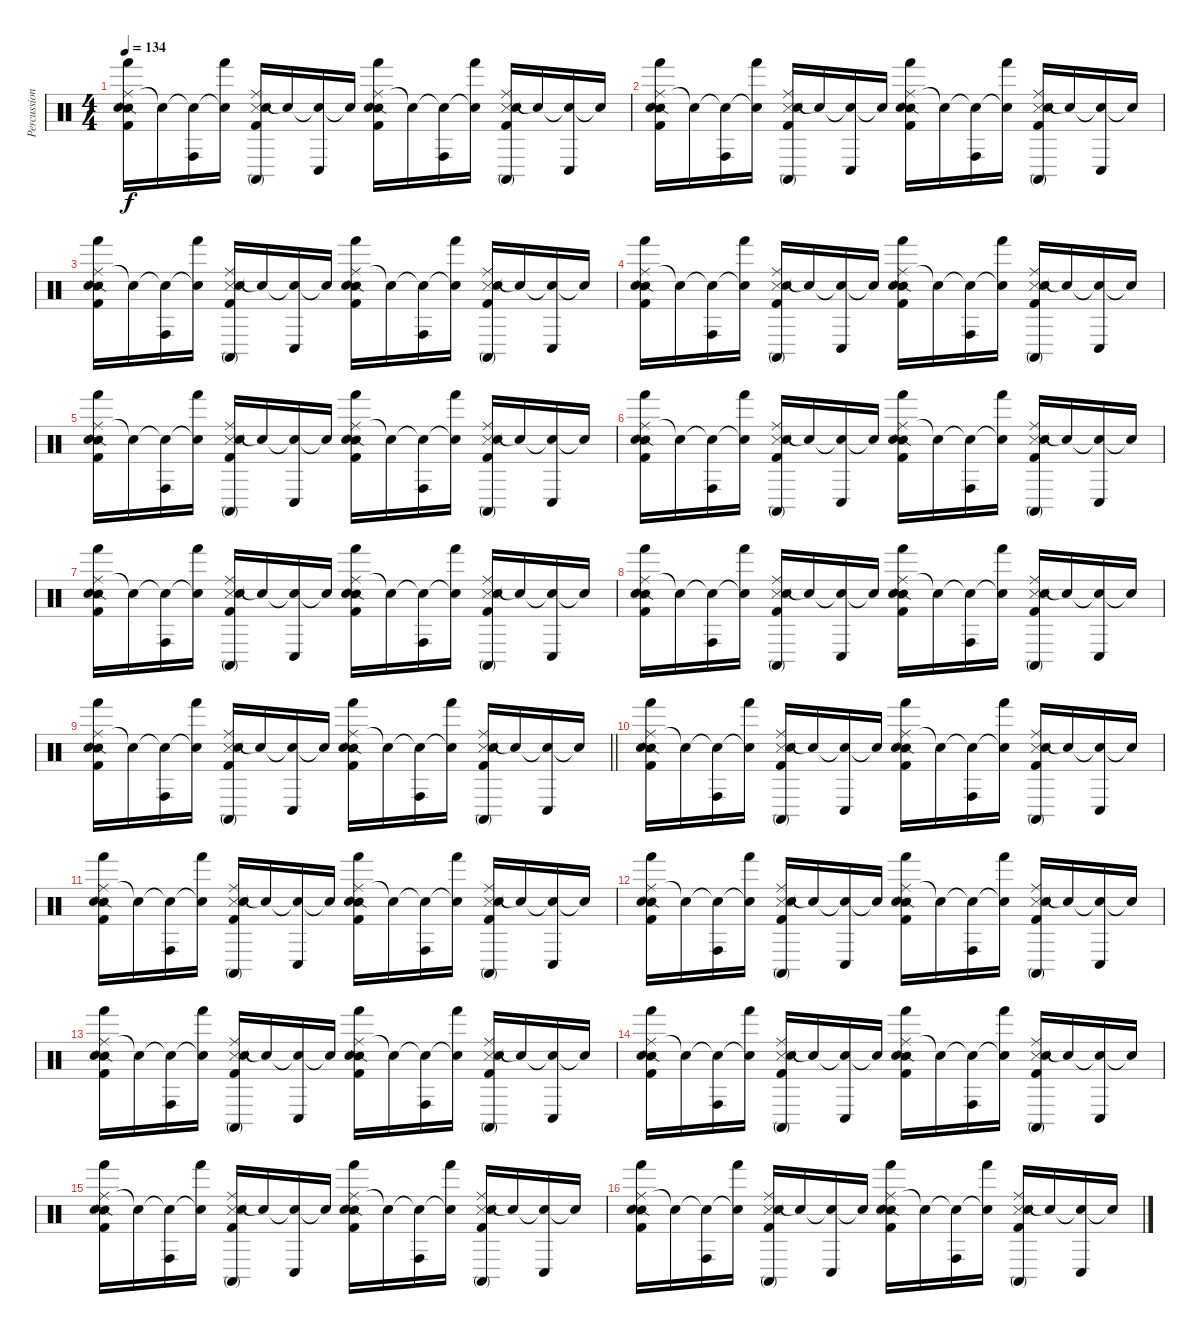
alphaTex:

\track ("Percussion" "Percussion") {instrument percussion}
\staff {score}
\articulation defaults
\ts (4 4)
\tempo 134
\clef neutral
\ks c
("Ride (middle)" "Hand (hit)" "Snare (side stick) 2" "Electric Snare (hit)" "Kick (hit) 2").16{dy f} "Snare (hit)"{t}.16 ("Snare (hit)"{t} "Conga high (hit)").16 ("Snare (hit)"{t} "Hand (hit)").16 ("Ride (middle)" "Conga high (mute)" "Metronome (hit)" "Electric Snare (hit)" "Kick (hit) 2").16 "Snare (hit)"{t}.16 ("Snare (hit)"{t} "Conga low (hit)").16 "Snare (hit)"{t}.16 ("Ride (middle)" "Hand (hit)" "Snare (side stick) 2" "Electric Snare (hit)" "Kick (hit) 2").16 "Snare (hit)"{t}.16 ("Snare (hit)"{t} "Conga high (hit)").16 ("Snare (hit)"{t} "Hand (hit)").16 ("Ride (middle)" "Conga high (mute)" "Metronome (hit)" "Electric Snare (hit)" "Kick (hit) 2").16 "Snare (hit)"{t}.16 ("Snare (hit)"{t} "Conga low (hit)").16 "Snare (hit)"{t}.16 |
("Ride (middle)" "Hand (hit)" "Snare (side stick) 2" "Electric Snare (hit)" "Kick (hit) 2").16 "Snare (hit)"{t}.16 ("Snare (hit)"{t} "Conga high (hit)").16 ("Snare (hit)"{t} "Hand (hit)").16 ("Ride (middle)" "Conga high (mute)" "Metronome (hit)" "Electric Snare (hit)" "Kick (hit) 2").16 "Snare (hit)"{t}.16 ("Snare (hit)"{t} "Conga low (hit)").16 "Snare (hit)"{t}.16 ("Ride (middle)" "Hand (hit)" "Snare (side stick) 2" "Electric Snare (hit)" "Kick (hit) 2").16 "Snare (hit)"{t}.16 ("Snare (hit)"{t} "Conga high (hit)").16 ("Snare (hit)"{t} "Hand (hit)").16 ("Ride (middle)" "Conga high (mute)" "Metronome (hit)" "Electric Snare (hit)" "Kick (hit) 2").16 "Snare (hit)"{t}.16 ("Snare (hit)"{t} "Conga low (hit)").16 "Snare (hit)"{t}.16 |
("Ride (middle)" "Hand (hit)" "Snare (side stick) 2" "Electric Snare (hit)" "Kick (hit) 2").16 "Snare (hit)"{t}.16 ("Snare (hit)"{t} "Conga high (hit)").16 ("Snare (hit)"{t} "Hand (hit)").16 ("Ride (middle)" "Conga high (mute)" "Metronome (hit)" "Electric Snare (hit)" "Kick (hit) 2").16 "Snare (hit)"{t}.16 ("Snare (hit)"{t} "Conga low (hit)").16 "Snare (hit)"{t}.16 ("Ride (middle)" "Hand (hit)" "Snare (side stick) 2" "Electric Snare (hit)" "Kick (hit) 2").16 "Snare (hit)"{t}.16 ("Snare (hit)"{t} "Conga high (hit)").16 ("Snare (hit)"{t} "Hand (hit)").16 ("Ride (middle)" "Conga high (mute)" "Metronome (hit)" "Electric Snare (hit)" "Kick (hit) 2").16 "Snare (hit)"{t}.16 ("Snare (hit)"{t} "Conga low (hit)").16 "Snare (hit)"{t}.16 |
("Ride (middle)" "Hand (hit)" "Snare (side stick) 2" "Electric Snare (hit)" "Kick (hit) 2").16 "Snare (hit)"{t}.16 ("Snare (hit)"{t} "Conga high (hit)").16 ("Snare (hit)"{t} "Hand (hit)").16 ("Ride (middle)" "Conga high (mute)" "Metronome (hit)" "Electric Snare (hit)" "Kick (hit) 2").16 "Snare (hit)"{t}.16 ("Snare (hit)"{t} "Conga low (hit)").16 "Snare (hit)"{t}.16 ("Ride (middle)" "Hand (hit)" "Snare (side stick) 2" "Electric Snare (hit)" "Kick (hit) 2").16 "Snare (hit)"{t}.16 ("Snare (hit)"{t} "Conga high (hit)").16 ("Snare (hit)"{t} "Hand (hit)").16 ("Ride (middle)" "Conga high (mute)" "Metronome (hit)" "Electric Snare (hit)" "Kick (hit) 2").16 "Snare (hit)"{t}.16 ("Snare (hit)"{t} "Conga low (hit)").16 "Snare (hit)"{t}.16 |
("Ride (middle)" "Hand (hit)" "Snare (side stick) 2" "Electric Snare (hit)" "Kick (hit) 2").16 "Snare (hit)"{t}.16 ("Snare (hit)"{t} "Conga high (hit)").16 ("Snare (hit)"{t} "Hand (hit)").16 ("Ride (middle)" "Conga high (mute)" "Metronome (hit)" "Electric Snare (hit)" "Kick (hit) 2").16 "Snare (hit)"{t}.16 ("Snare (hit)"{t} "Conga low (hit)").16 "Snare (hit)"{t}.16 ("Ride (middle)" "Hand (hit)" "Snare (side stick) 2" "Electric Snare (hit)" "Kick (hit) 2").16 "Snare (hit)"{t}.16 ("Snare (hit)"{t} "Conga high (hit)").16 ("Snare (hit)"{t} "Hand (hit)").16 ("Ride (middle)" "Conga high (mute)" "Metronome (hit)" "Electric Snare (hit)" "Kick (hit) 2").16 "Snare (hit)"{t}.16 ("Snare (hit)"{t} "Conga low (hit)").16 "Snare (hit)"{t}.16 |
("Ride (middle)" "Hand (hit)" "Snare (side stick) 2" "Electric Snare (hit)" "Kick (hit) 2").16 "Snare (hit)"{t}.16 ("Snare (hit)"{t} "Conga high (hit)").16 ("Snare (hit)"{t} "Hand (hit)").16 ("Ride (middle)" "Conga high (mute)" "Metronome (hit)" "Electric Snare (hit)" "Kick (hit) 2").16 "Snare (hit)"{t}.16 ("Snare (hit)"{t} "Conga low (hit)").16 "Snare (hit)"{t}.16 ("Ride (middle)" "Hand (hit)" "Snare (side stick) 2" "Electric Snare (hit)" "Kick (hit) 2").16 "Snare (hit)"{t}.16 ("Snare (hit)"{t} "Conga high (hit)").16 ("Snare (hit)"{t} "Hand (hit)").16 ("Ride (middle)" "Conga high (mute)" "Metronome (hit)" "Electric Snare (hit)" "Kick (hit) 2").16 "Snare (hit)"{t}.16 ("Snare (hit)"{t} "Conga low (hit)").16 "Snare (hit)"{t}.16 |
("Ride (middle)" "Hand (hit)" "Snare (side stick) 2" "Electric Snare (hit)" "Kick (hit) 2").16 "Snare (hit)"{t}.16 ("Snare (hit)"{t} "Conga high (hit)").16 ("Snare (hit)"{t} "Hand (hit)").16 ("Ride (middle)" "Conga high (mute)" "Metronome (hit)" "Electric Snare (hit)" "Kick (hit) 2").16 "Snare (hit)"{t}.16 ("Snare (hit)"{t} "Conga low (hit)").16 "Snare (hit)"{t}.16 ("Ride (middle)" "Hand (hit)" "Snare (side stick) 2" "Electric Snare (hit)" "Kick (hit) 2").16 "Snare (hit)"{t}.16 ("Snare (hit)"{t} "Conga high (hit)").16 ("Snare (hit)"{t} "Hand (hit)").16 ("Ride (middle)" "Conga high (mute)" "Metronome (hit)" "Electric Snare (hit)" "Kick (hit) 2").16 "Snare (hit)"{t}.16 ("Snare (hit)"{t} "Conga low (hit)").16 "Snare (hit)"{t}.16 |
("Ride (middle)" "Hand (hit)" "Snare (side stick) 2" "Electric Snare (hit)" "Kick (hit) 2").16 "Snare (hit)"{t}.16 ("Snare (hit)"{t} "Conga high (hit)").16 ("Snare (hit)"{t} "Hand (hit)").16 ("Ride (middle)" "Conga high (mute)" "Metronome (hit)" "Electric Snare (hit)" "Kick (hit) 2").16 "Snare (hit)"{t}.16 ("Snare (hit)"{t} "Conga low (hit)").16 "Snare (hit)"{t}.16 ("Ride (middle)" "Hand (hit)" "Snare (side stick) 2" "Electric Snare (hit)" "Kick (hit) 2").16 "Snare (hit)"{t}.16 ("Snare (hit)"{t} "Conga high (hit)").16 ("Snare (hit)"{t} "Hand (hit)").16 ("Ride (middle)" "Conga high (mute)" "Metronome (hit)" "Electric Snare (hit)" "Kick (hit) 2").16 "Snare (hit)"{t}.16 ("Snare (hit)"{t} "Conga low (hit)").16 "Snare (hit)"{t}.16 |
\barLineRight lightlight
("Ride (middle)" "Hand (hit)" "Snare (side stick) 2" "Electric Snare (hit)" "Kick (hit) 2").16 "Snare (hit)"{t}.16 ("Snare (hit)"{t} "Conga high (hit)").16 ("Snare (hit)"{t} "Hand (hit)").16 ("Ride (middle)" "Conga high (mute)" "Metronome (hit)" "Electric Snare (hit)" "Kick (hit) 2").16 "Snare (hit)"{t}.16 ("Snare (hit)"{t} "Conga low (hit)").16 "Snare (hit)"{t}.16 ("Ride (middle)" "Hand (hit)" "Snare (side stick) 2" "Electric Snare (hit)" "Kick (hit) 2").16 "Snare (hit)"{t}.16 ("Snare (hit)"{t} "Conga high (hit)").16 ("Snare (hit)"{t} "Hand (hit)").16 ("Ride (middle)" "Conga high (mute)" "Metronome (hit)" "Electric Snare (hit)" "Kick (hit) 2").16 "Snare (hit)"{t}.16 ("Snare (hit)"{t} "Conga low (hit)").16 "Snare (hit)"{t}.16 |
("Ride (middle)" "Hand (hit)" "Snare (side stick) 2" "Electric Snare (hit)" "Kick (hit) 2").16 "Snare (hit)"{t}.16 ("Snare (hit)"{t} "Conga high (hit)").16 ("Snare (hit)"{t} "Hand (hit)").16 ("Ride (middle)" "Conga high (mute)" "Metronome (hit)" "Electric Snare (hit)" "Kick (hit) 2").16 "Snare (hit)"{t}.16 ("Snare (hit)"{t} "Conga low (hit)").16 "Snare (hit)"{t}.16 ("Ride (middle)" "Hand (hit)" "Snare (side stick) 2" "Electric Snare (hit)" "Kick (hit) 2").16 "Snare (hit)"{t}.16 ("Snare (hit)"{t} "Conga high (hit)").16 ("Snare (hit)"{t} "Hand (hit)").16 ("Ride (middle)" "Conga high (mute)" "Metronome (hit)" "Electric Snare (hit)" "Kick (hit) 2").16 "Snare (hit)"{t}.16 ("Snare (hit)"{t} "Conga low (hit)").16 "Snare (hit)"{t}.16 |
("Ride (middle)" "Hand (hit)" "Snare (side stick) 2" "Electric Snare (hit)" "Kick (hit) 2").16 "Snare (hit)"{t}.16 ("Snare (hit)"{t} "Conga high (hit)").16 ("Snare (hit)"{t} "Hand (hit)").16 ("Ride (middle)" "Conga high (mute)" "Metronome (hit)" "Electric Snare (hit)" "Kick (hit) 2").16 "Snare (hit)"{t}.16 ("Snare (hit)"{t} "Conga low (hit)").16 "Snare (hit)"{t}.16 ("Ride (middle)" "Hand (hit)" "Snare (side stick) 2" "Electric Snare (hit)" "Kick (hit) 2").16 "Snare (hit)"{t}.16 ("Snare (hit)"{t} "Conga high (hit)").16 ("Snare (hit)"{t} "Hand (hit)").16 ("Ride (middle)" "Conga high (mute)" "Metronome (hit)" "Electric Snare (hit)" "Kick (hit) 2").16 "Snare (hit)"{t}.16 ("Snare (hit)"{t} "Conga low (hit)").16 "Snare (hit)"{t}.16 |
("Ride (middle)" "Hand (hit)" "Snare (side stick) 2" "Electric Snare (hit)" "Kick (hit) 2").16 "Snare (hit)"{t}.16 ("Snare (hit)"{t} "Conga high (hit)").16 ("Snare (hit)"{t} "Hand (hit)").16 ("Ride (middle)" "Conga high (mute)" "Metronome (hit)" "Electric Snare (hit)" "Kick (hit) 2").16 "Snare (hit)"{t}.16 ("Snare (hit)"{t} "Conga low (hit)").16 "Snare (hit)"{t}.16 ("Ride (middle)" "Hand (hit)" "Snare (side stick) 2" "Electric Snare (hit)" "Kick (hit) 2").16 "Snare (hit)"{t}.16 ("Snare (hit)"{t} "Conga high (hit)").16 ("Snare (hit)"{t} "Hand (hit)").16 ("Ride (middle)" "Conga high (mute)" "Metronome (hit)" "Electric Snare (hit)" "Kick (hit) 2").16 "Snare (hit)"{t}.16 ("Snare (hit)"{t} "Conga low (hit)").16 "Snare (hit)"{t}.16 |
("Ride (middle)" "Hand (hit)" "Snare (side stick) 2" "Electric Snare (hit)" "Kick (hit) 2").16 "Snare (hit)"{t}.16 ("Snare (hit)"{t} "Conga high (hit)").16 ("Snare (hit)"{t} "Hand (hit)").16 ("Ride (middle)" "Conga high (mute)" "Metronome (hit)" "Electric Snare (hit)" "Kick (hit) 2").16 "Snare (hit)"{t}.16 ("Snare (hit)"{t} "Conga low (hit)").16 "Snare (hit)"{t}.16 ("Ride (middle)" "Hand (hit)" "Snare (side stick) 2" "Electric Snare (hit)" "Kick (hit) 2").16 "Snare (hit)"{t}.16 ("Snare (hit)"{t} "Conga high (hit)").16 ("Snare (hit)"{t} "Hand (hit)").16 ("Ride (middle)" "Conga high (mute)" "Metronome (hit)" "Electric Snare (hit)" "Kick (hit) 2").16 "Snare (hit)"{t}.16 ("Snare (hit)"{t} "Conga low (hit)").16 "Snare (hit)"{t}.16 |
("Ride (middle)" "Hand (hit)" "Snare (side stick) 2" "Electric Snare (hit)" "Kick (hit) 2").16 "Snare (hit)"{t}.16 ("Snare (hit)"{t} "Conga high (hit)").16 ("Snare (hit)"{t} "Hand (hit)").16 ("Ride (middle)" "Conga high (mute)" "Metronome (hit)" "Electric Snare (hit)" "Kick (hit) 2").16 "Snare (hit)"{t}.16 ("Snare (hit)"{t} "Conga low (hit)").16 "Snare (hit)"{t}.16 ("Ride (middle)" "Hand (hit)" "Snare (side stick) 2" "Electric Snare (hit)" "Kick (hit) 2").16 "Snare (hit)"{t}.16 ("Snare (hit)"{t} "Conga high (hit)").16 ("Snare (hit)"{t} "Hand (hit)").16 ("Ride (middle)" "Conga high (mute)" "Metronome (hit)" "Electric Snare (hit)" "Kick (hit) 2").16 "Snare (hit)"{t}.16 ("Snare (hit)"{t} "Conga low (hit)").16 "Snare (hit)"{t}.16 |
("Ride (middle)" "Hand (hit)" "Snare (side stick) 2" "Electric Snare (hit)" "Kick (hit) 2").16 "Snare (hit)"{t}.16 ("Snare (hit)"{t} "Conga high (hit)").16 ("Snare (hit)"{t} "Hand (hit)").16 ("Ride (middle)" "Conga high (mute)" "Metronome (hit)" "Electric Snare (hit)" "Kick (hit) 2").16 "Snare (hit)"{t}.16 ("Snare (hit)"{t} "Conga low (hit)").16 "Snare (hit)"{t}.16 ("Ride (middle)" "Hand (hit)" "Snare (side stick) 2" "Electric Snare (hit)" "Kick (hit) 2").16 "Snare (hit)"{t}.16 ("Snare (hit)"{t} "Conga high (hit)").16 ("Snare (hit)"{t} "Hand (hit)").16 ("Ride (middle)" "Conga high (mute)" "Metronome (hit)" "Electric Snare (hit)" "Kick (hit) 2").16 "Snare (hit)"{t}.16 ("Snare (hit)"{t} "Conga low (hit)").16 "Snare (hit)"{t}.16 |
("Ride (middle)" "Hand (hit)" "Snare (side stick) 2" "Electric Snare (hit)" "Kick (hit) 2").16 "Snare (hit)"{t}.16 ("Snare (hit)"{t} "Conga high (hit)").16 ("Snare (hit)"{t} "Hand (hit)").16 ("Ride (middle)" "Conga high (mute)" "Metronome (hit)" "Electric Snare (hit)" "Kick (hit) 2").16 "Snare (hit)"{t}.16 ("Snare (hit)"{t} "Conga low (hit)").16 "Snare (hit)"{t}.16 ("Ride (middle)" "Hand (hit)" "Snare (side stick) 2" "Electric Snare (hit)" "Kick (hit) 2").16 "Snare (hit)"{t}.16 ("Snare (hit)"{t} "Conga high (hit)").16 ("Snare (hit)"{t} "Hand (hit)").16 ("Ride (middle)" "Conga high (mute)" "Metronome (hit)" "Electric Snare (hit)" "Kick (hit) 2").16 "Snare (hit)"{t}.16 ("Snare (hit)"{t} "Conga low (hit)").16 "Snare (hit)"{t}.16
